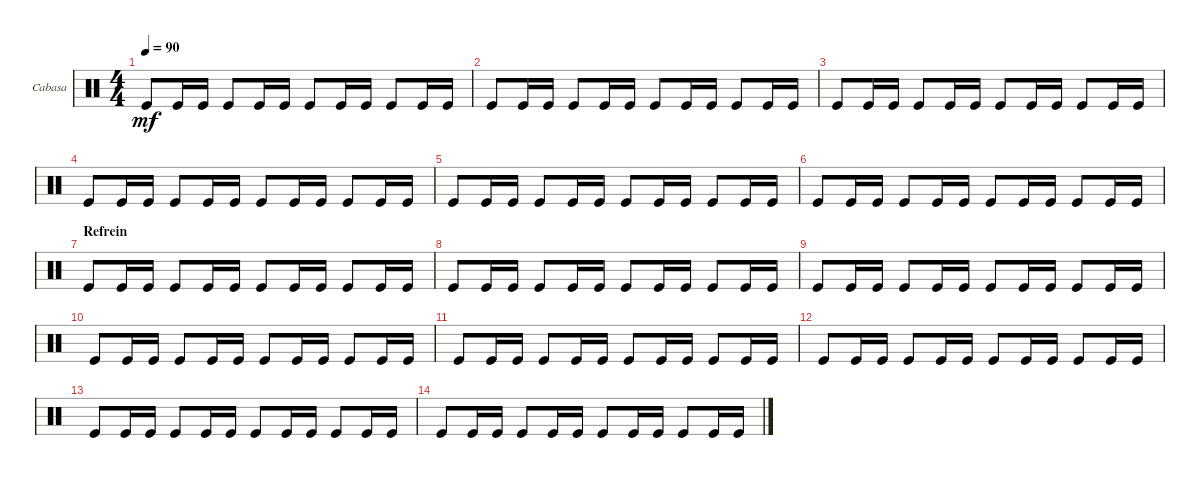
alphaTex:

\defaultSystemsLayout 4
\bracketExtendMode groupsimilarinstruments
\firstSystemTrackNameOrientation horizontal
\otherSystemsTrackNameOrientation horizontal
\track ("Cabasa" "Cabasa") {instrument percussion}
\staff {score}
\articulation defaults
\ts (4 4)
\tempo 90
\clef neutral
\scale
0.333333
\ks c "Kick (hit)".8{dy mf} "Kick (hit)".16 "Kick (hit)".16 "Kick (hit)".8 "Kick (hit)".16 "Kick (hit)".16 "Kick (hit)".8 "Kick (hit)".16 "Kick (hit)".16 "Kick (hit)".8 "Kick (hit)".16 "Kick (hit)".16
|
\scale
0.333333 "Kick (hit)".8 "Kick (hit)".16 "Kick (hit)".16 "Kick (hit)".8 "Kick (hit)".16 "Kick (hit)".16 "Kick (hit)".8 "Kick (hit)".16 "Kick (hit)".16 "Kick (hit)".8 "Kick (hit)".16 "Kick (hit)".16 |
\scale
0.333333 "Kick (hit)".8 "Kick (hit)".16 "Kick (hit)".16 "Kick (hit)".8 "Kick (hit)".16 "Kick (hit)".16 "Kick (hit)".8 "Kick (hit)".16 "Kick (hit)".16 "Kick (hit)".8 "Kick (hit)".16 "Kick (hit)".16 |
\scale
0.333333 "Kick (hit)".8 "Kick (hit)".16 "Kick (hit)".16 "Kick (hit)".8 "Kick (hit)".16 "Kick (hit)".16 "Kick (hit)".8 "Kick (hit)".16 "Kick (hit)".16 "Kick (hit)".8 "Kick (hit)".16 "Kick (hit)".16 |
\scale
0.333333 "Kick (hit)".8 "Kick (hit)".16 "Kick (hit)".16 "Kick (hit)".8 "Kick (hit)".16 "Kick (hit)".16 "Kick (hit)".8 "Kick (hit)".16 "Kick (hit)".16 "Kick (hit)".8 "Kick (hit)".16 "Kick (hit)".16 |
\scale
0.333333 "Kick (hit)".8 "Kick (hit)".16 "Kick (hit)".16 "Kick (hit)".8 "Kick (hit)".16 "Kick (hit)".16 "Kick (hit)".8 "Kick (hit)".16 "Kick (hit)".16 "Kick (hit)".8 "Kick (hit)".16 "Kick (hit)".16 |
\section ("" "Refrein")
\scale
0.333333 "Kick (hit)".8 "Kick (hit)".16 "Kick (hit)".16 "Kick (hit)".8 "Kick (hit)".16 "Kick (hit)".16 "Kick (hit)".8 "Kick (hit)".16 "Kick (hit)".16 "Kick (hit)".8 "Kick (hit)".16 "Kick (hit)".16 |
\scale
0.333333 "Kick (hit)".8 "Kick (hit)".16 "Kick (hit)".16 "Kick (hit)".8 "Kick (hit)".16 "Kick (hit)".16 "Kick (hit)".8 "Kick (hit)".16 "Kick (hit)".16 "Kick (hit)".8 "Kick (hit)".16 "Kick (hit)".16 |
\scale
0.333333 "Kick (hit)".8 "Kick (hit)".16 "Kick (hit)".16 "Kick (hit)".8 "Kick (hit)".16 "Kick (hit)".16 "Kick (hit)".8 "Kick (hit)".16 "Kick (hit)".16 "Kick (hit)".8 "Kick (hit)".16 "Kick (hit)".16 |
\scale
0.333333 "Kick (hit)".8 "Kick (hit)".16 "Kick (hit)".16 "Kick (hit)".8 "Kick (hit)".16 "Kick (hit)".16 "Kick (hit)".8 "Kick (hit)".16 "Kick (hit)".16 "Kick (hit)".8 "Kick (hit)".16 "Kick (hit)".16 |
\scale
0.333333 "Kick (hit)".8 "Kick (hit)".16 "Kick (hit)".16 "Kick (hit)".8 "Kick (hit)".16 "Kick (hit)".16 "Kick (hit)".8 "Kick (hit)".16 "Kick (hit)".16 "Kick (hit)".8 "Kick (hit)".16 "Kick (hit)".16 |
\scale
0.333333 "Kick (hit)".8 "Kick (hit)".16 "Kick (hit)".16 "Kick (hit)".8 "Kick (hit)".16 "Kick (hit)".16 "Kick (hit)".8 "Kick (hit)".16 "Kick (hit)".16 "Kick (hit)".8 "Kick (hit)".16 "Kick (hit)".16 |
\scale
0.333333 "Kick (hit)".8 "Kick (hit)".16 "Kick (hit)".16 "Kick (hit)".8 "Kick (hit)".16 "Kick (hit)".16 "Kick (hit)".8 "Kick (hit)".16 "Kick (hit)".16 "Kick (hit)".8 "Kick (hit)".16 "Kick (hit)".16 |
\scale
0.333333 "Kick (hit)".8 "Kick (hit)".16 "Kick (hit)".16 "Kick (hit)".8 "Kick (hit)".16 "Kick (hit)".16 "Kick (hit)".8 "Kick (hit)".16 "Kick (hit)".16 "Kick (hit)".8 "Kick (hit)".16 "Kick (hit)".16 |
\scale
0.333333
